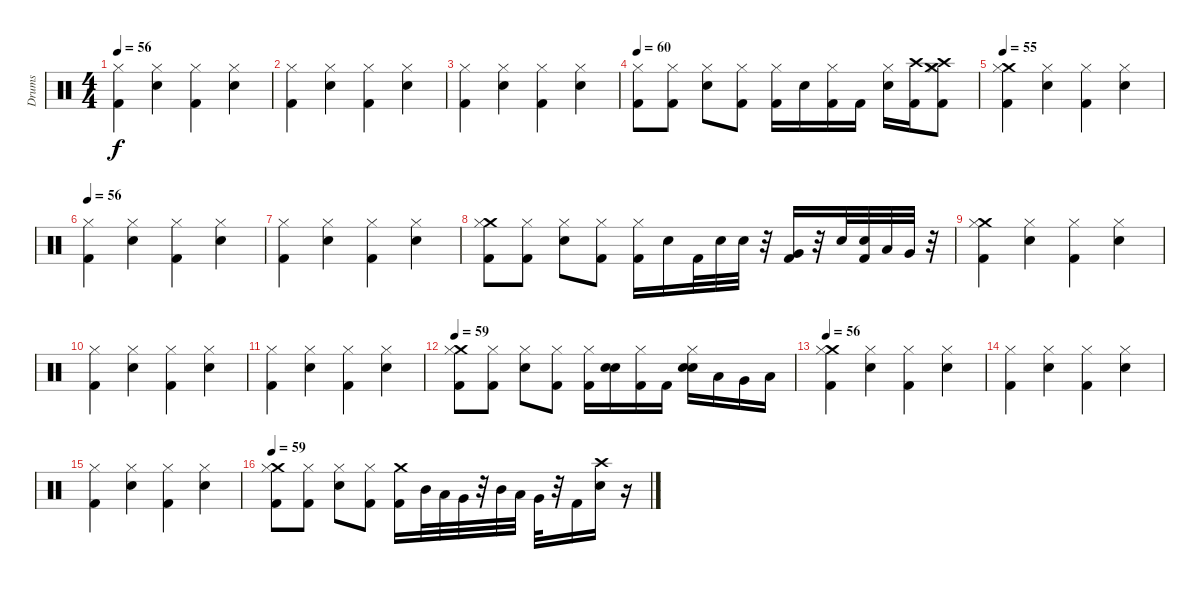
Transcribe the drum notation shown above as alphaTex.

\track ("Drums" "Drums") {instrument percussion}
\staff {score}
\articulation defaults
\ts (4 4)
\tempo 56
\clef neutral
\ks c
("Hi-Hat (closed)" "Kick (hit) 2").4{dy f} ("Hi-Hat (closed)" "Snare (hit) 2").4 ("Hi-Hat (closed)" "Kick (hit) 2").4 ("Hi-Hat (closed)" "Snare (hit) 2").4 |
("Hi-Hat (closed)" "Kick (hit) 2").4 ("Hi-Hat (closed)" "Snare (hit) 2").4 ("Hi-Hat (closed)" "Kick (hit) 2").4 ("Hi-Hat (closed)" "Snare (hit) 2").4 |
("Hi-Hat (closed)" "Kick (hit) 2").4 ("Hi-Hat (closed)" "Snare (hit) 2").4 ("Hi-Hat (closed)" "Kick (hit) 2").4 ("Hi-Hat (closed)" "Snare (hit) 2").4 |
\tempo 60
("Kick (hit) 2" "Hi-Hat (closed)").8 ("Kick (hit) 2" "Hi-Hat (closed)").8 ("Snare (hit) 2" "Hi-Hat (closed)").8 ("Kick (hit) 2" "Hi-Hat (closed)").8 ("Kick (hit) 2" "Hi-Hat (closed)").16 "Snare (hit) 2".16 ("Kick (hit) 2" "Hi-Hat (closed)").16 "Kick (hit) 2".16 ("Snare (hit) 2" "Hi-Hat (closed)").16 ("Crash high (hit)" "Kick (hit) 2").16 ("Crash medium (hit)" "Crash high (hit)" "Kick (hit) 2" "Hi-Hat (closed)").8 |
\tempo 55
("Crash medium (hit)" "Hi-Hat (closed)" "Kick (hit) 2").4 ("Hi-Hat (closed)" "Snare (hit) 2").4 ("Hi-Hat (closed)" "Kick (hit) 2").4 ("Hi-Hat (closed)" "Snare (hit) 2").4 |
\tempo 56
("Hi-Hat (closed)" "Kick (hit) 2").4 ("Hi-Hat (closed)" "Snare (hit) 2").4 ("Hi-Hat (closed)" "Kick (hit) 2").4 ("Hi-Hat (closed)" "Snare (hit) 2").4 |
("Hi-Hat (closed)" "Kick (hit) 2").4 ("Hi-Hat (closed)" "Snare (hit) 2").4 ("Hi-Hat (closed)" "Kick (hit) 2").4 ("Hi-Hat (closed)" "Snare (hit) 2").4 |
("Crash medium (hit)" "Kick (hit) 2" "Hi-Hat (closed)").8 ("Kick (hit) 2" "Hi-Hat (closed)").8 ("Snare (hit) 2" "Hi-Hat (closed)").8 ("Kick (hit) 2" "Hi-Hat (closed)").8 ("Kick (hit) 2" "Hi-Hat (closed)").16 "Electric Snare (hit)".16 "Kick (hit) 2".32 "Electric Snare (hit)".32 "Electric Snare (hit)".32 r.32 ("Kick (hit) 2" "Very Low Tom (hit)").16 r.32 "Electric Snare (hit)".32 ("Kick (hit) 2" "Electric Snare (hit)").32 "Low Tom (hit)".32 "Very Low Tom (hit)".32 r.32 |
("Crash medium (hit)" "Hi-Hat (closed)" "Kick (hit) 2").4 ("Hi-Hat (closed)" "Snare (hit) 2").4 ("Hi-Hat (closed)" "Kick (hit) 2").4 ("Hi-Hat (closed)" "Snare (hit) 2").4 |
("Hi-Hat (closed)" "Kick (hit) 2").4 ("Hi-Hat (closed)" "Snare (hit) 2").4 ("Hi-Hat (closed)" "Kick (hit) 2").4 ("Hi-Hat (closed)" "Snare (hit) 2").4 |
("Hi-Hat (closed)" "Kick (hit) 2").4 ("Hi-Hat (closed)" "Snare (hit) 2").4 ("Hi-Hat (closed)" "Kick (hit) 2").4 ("Hi-Hat (closed)" "Snare (hit) 2").4 |
\tempo 59
("Crash medium (hit)" "Kick (hit) 2" "Hi-Hat (closed)").8 ("Kick (hit) 2" "Hi-Hat (closed)").8 ("Snare (hit) 2" "Hi-Hat (closed)").8 ("Kick (hit) 2" "Hi-Hat (closed)").8 ("Hi-Hat (closed)" "Kick (hit) 2").16 ("Snare (hit) 2" "Electric Snare (hit)").16 ("Hi-Hat (closed)" "Kick (hit) 2").16 "Kick (hit) 2".16 ("Hi-Hat (closed)" "Snare (hit) 2" "Electric Snare (hit)").16 "Low Tom (hit)".16 "Very Low Tom (hit)".16 "Low Floor Tom (hit)".16 |
\tempo 56
("Crash medium (hit)" "Hi-Hat (closed)" "Kick (hit) 2").4 ("Hi-Hat (closed)" "Snare (hit) 2").4 ("Hi-Hat (closed)" "Kick (hit) 2").4 ("Hi-Hat (closed)" "Snare (hit) 2").4 |
("Hi-Hat (closed)" "Kick (hit) 2").4 ("Hi-Hat (closed)" "Snare (hit) 2").4 ("Hi-Hat (closed)" "Kick (hit) 2").4 ("Hi-Hat (closed)" "Snare (hit) 2").4 |
("Hi-Hat (closed)" "Kick (hit) 2").4 ("Hi-Hat (closed)" "Snare (hit) 2").4 ("Hi-Hat (closed)" "Kick (hit) 2").4 ("Hi-Hat (closed)" "Snare (hit) 2").4 |
\tempo 59
("Crash medium (hit)" "Kick (hit) 2" "Hi-Hat (closed)").8 ("Kick (hit) 2" "Hi-Hat (closed)").8 ("Snare (hit) 2" "Hi-Hat (closed)").8 ("Kick (hit) 2" "Hi-Hat (closed)").8 ("Crash medium (hit)" "Kick (hit) 2").16 "Mid Tom (hit)".32 "Low Tom (hit)".32 "Very Low Tom (hit)".32 r.32 "Mid Tom (hit)".32 "Low Tom (hit)".32 "Very Low Tom (hit)".32 r.32 "Kick (hit) 2".16 ("Crash high (hit)" "Snare (hit) 2").16 r.16
